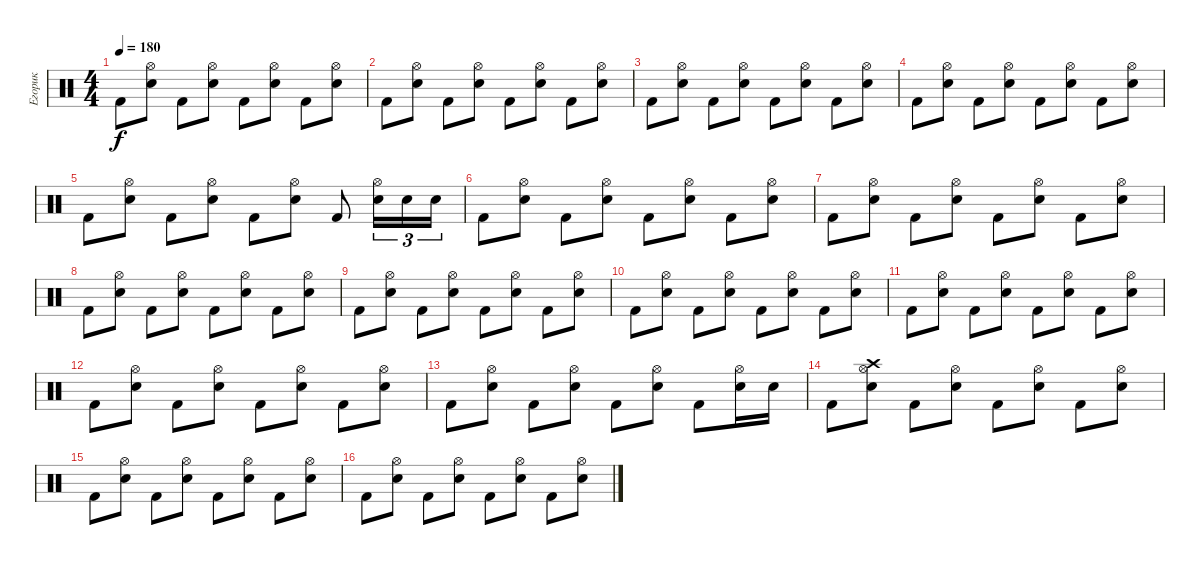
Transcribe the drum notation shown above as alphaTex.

\track ("Егорик" "Егорик") {instrument percussion}
\staff {score}
\articulation defaults
\ts (4 4)
\tempo 180
\clef neutral
\ks c "Kick (hit) 2".8{dy f}
("Hi-Hat (open)" "Electric Snare (hit)").8 "Kick (hit) 2".8 ("Hi-Hat (open)" "Electric Snare (hit)").8 "Kick (hit) 2".8 ("Hi-Hat (open)" "Electric Snare (hit)").8 "Kick (hit) 2".8 ("Hi-Hat (open)" "Electric Snare (hit)").8 |
"Kick (hit) 2".8 ("Hi-Hat (open)" "Electric Snare (hit)").8 "Kick (hit) 2".8 ("Hi-Hat (open)" "Electric Snare (hit)").8 "Kick (hit) 2".8 ("Hi-Hat (open)" "Electric Snare (hit)").8 "Kick (hit) 2".8 ("Hi-Hat (open)" "Electric Snare (hit)").8 |
"Kick (hit) 2".8 ("Hi-Hat (open)" "Electric Snare (hit)").8 "Kick (hit) 2".8 ("Hi-Hat (open)" "Electric Snare (hit)").8 "Kick (hit) 2".8 ("Hi-Hat (open)" "Electric Snare (hit)").8 "Kick (hit) 2".8 ("Hi-Hat (open)" "Electric Snare (hit)").8 |
"Kick (hit) 2".8 ("Hi-Hat (open)" "Electric Snare (hit)").8 "Kick (hit) 2".8 ("Hi-Hat (open)" "Electric Snare (hit)").8 "Kick (hit) 2".8 ("Hi-Hat (open)" "Electric Snare (hit)").8 "Kick (hit) 2".8 ("Hi-Hat (open)" "Electric Snare (hit)").8 |
"Kick (hit) 2".8 ("Hi-Hat (open)" "Electric Snare (hit)").8 "Kick (hit) 2".8 ("Hi-Hat (open)" "Electric Snare (hit)").8 "Kick (hit) 2".8 ("Hi-Hat (open)" "Electric Snare (hit)").8 "Kick (hit) 2".8 ("Hi-Hat (open)" "Electric Snare (hit)").16{tu (3 2)} "Electric Snare (hit)".16{tu (3 2)} "Electric Snare (hit)".16{tu (3 2)} |
"Kick (hit) 2".8 ("Hi-Hat (open)" "Electric Snare (hit)").8 "Kick (hit) 2".8 ("Hi-Hat (open)" "Electric Snare (hit)").8 "Kick (hit) 2".8 ("Hi-Hat (open)" "Electric Snare (hit)").8 "Kick (hit) 2".8 ("Hi-Hat (open)" "Electric Snare (hit)").8 |
"Kick (hit) 2".8 ("Hi-Hat (open)" "Electric Snare (hit)").8 "Kick (hit) 2".8 ("Hi-Hat (open)" "Electric Snare (hit)").8 "Kick (hit) 2".8 ("Hi-Hat (open)" "Electric Snare (hit)").8 "Kick (hit) 2".8 ("Hi-Hat (open)" "Electric Snare (hit)").8 |
"Kick (hit) 2".8 ("Hi-Hat (open)" "Electric Snare (hit)").8 "Kick (hit) 2".8 ("Hi-Hat (open)" "Electric Snare (hit)").8 "Kick (hit) 2".8 ("Hi-Hat (open)" "Electric Snare (hit)").8 "Kick (hit) 2".8 ("Hi-Hat (open)" "Electric Snare (hit)").8 |
"Kick (hit) 2".8 ("Hi-Hat (open)" "Electric Snare (hit)").8 "Kick (hit) 2".8 ("Hi-Hat (open)" "Electric Snare (hit)").8 "Kick (hit) 2".8 ("Hi-Hat (open)" "Electric Snare (hit)").8 "Kick (hit) 2".8 ("Hi-Hat (open)" "Electric Snare (hit)").8 |
"Kick (hit) 2".8 ("Hi-Hat (open)" "Electric Snare (hit)").8 "Kick (hit) 2".8 ("Hi-Hat (open)" "Electric Snare (hit)").8 "Kick (hit) 2".8 ("Hi-Hat (open)" "Electric Snare (hit)").8 "Kick (hit) 2".8 ("Hi-Hat (open)" "Electric Snare (hit)").8 |
"Kick (hit) 2".8 ("Hi-Hat (open)" "Electric Snare (hit)").8 "Kick (hit) 2".8 ("Hi-Hat (open)" "Electric Snare (hit)").8 "Kick (hit) 2".8 ("Hi-Hat (open)" "Electric Snare (hit)").8 "Kick (hit) 2".8 ("Hi-Hat (open)" "Electric Snare (hit)").8 |
"Kick (hit) 2".8 ("Hi-Hat (open)" "Electric Snare (hit)").8 "Kick (hit) 2".8 ("Hi-Hat (open)" "Electric Snare (hit)").8 "Kick (hit) 2".8 ("Hi-Hat (open)" "Electric Snare (hit)").8 "Kick (hit) 2".8 ("Hi-Hat (open)" "Electric Snare (hit)").8 |
"Kick (hit) 2".8 ("Hi-Hat (open)" "Electric Snare (hit)").8 "Kick (hit) 2".8 ("Hi-Hat (open)" "Electric Snare (hit)").8 "Kick (hit) 2".8 ("Hi-Hat (open)" "Electric Snare (hit)").8 "Kick (hit) 2".8 ("Hi-Hat (open)" "Electric Snare (hit)").16 "Electric Snare (hit)".16 |
"Kick (hit) 2".8 ("Crash high (hit)" "Hi-Hat (open)" "Electric Snare (hit)").8 "Kick (hit) 2".8 ("Hi-Hat (open)" "Electric Snare (hit)").8 "Kick (hit) 2".8 ("Hi-Hat (open)" "Electric Snare (hit)").8 "Kick (hit) 2".8 ("Hi-Hat (open)" "Electric Snare (hit)").8 |
"Kick (hit) 2".8 ("Hi-Hat (open)" "Electric Snare (hit)").8 "Kick (hit) 2".8 ("Hi-Hat (open)" "Electric Snare (hit)").8 "Kick (hit) 2".8 ("Hi-Hat (open)" "Electric Snare (hit)").8 "Kick (hit) 2".8 ("Hi-Hat (open)" "Electric Snare (hit)").8 |
"Kick (hit) 2".8 ("Hi-Hat (open)" "Electric Snare (hit)").8 "Kick (hit) 2".8 ("Hi-Hat (open)" "Electric Snare (hit)").8 "Kick (hit) 2".8 ("Hi-Hat (open)" "Electric Snare (hit)").8 "Kick (hit) 2".8 ("Hi-Hat (open)" "Electric Snare (hit)").8
